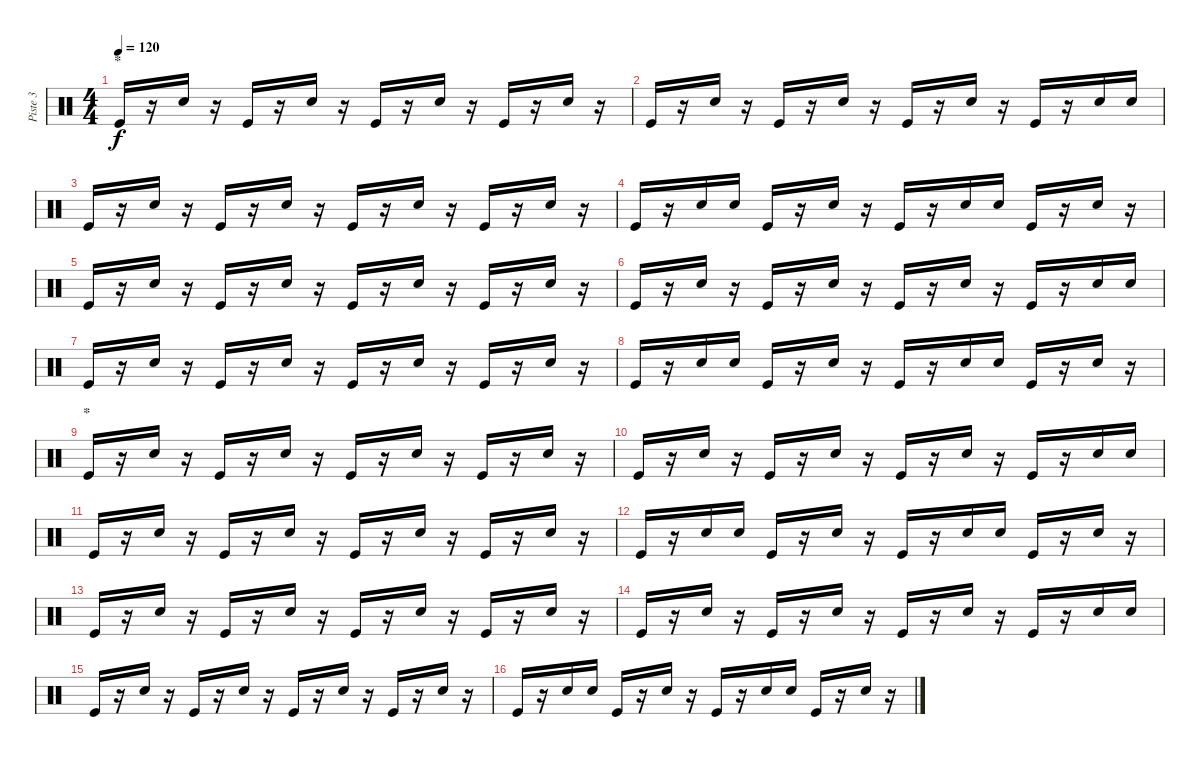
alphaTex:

\track ("Piste 3" "Piste 3") {instrument percussion}
\staff {score}
\articulation defaults
\ts (4 4)
\section ("" "*")
\tempo 120
\clef neutral
\ks c "Kick (hit)".16{dy f}
r.16 "Snare (hit) 2".16 r.16 "Kick (hit)".16 r.16 "Snare (hit) 2".16 r.16 "Kick (hit)".16 r.16 "Snare (hit) 2".16 r.16 "Kick (hit)".16 r.16 "Snare (hit) 2".16 r.16 |
"Kick (hit)".16 r.16 "Snare (hit) 2".16 r.16 "Kick (hit)".16 r.16 "Snare (hit) 2".16 r.16 "Kick (hit)".16 r.16 "Snare (hit) 2".16 r.16 "Kick (hit)".16 r.16 "Snare (hit) 2".16 "Snare (hit) 2".16 |
"Kick (hit)".16 r.16 "Snare (hit) 2".16 r.16 "Kick (hit)".16 r.16 "Snare (hit) 2".16 r.16 "Kick (hit)".16 r.16 "Snare (hit) 2".16 r.16 "Kick (hit)".16 r.16 "Snare (hit) 2".16 r.16 |
"Kick (hit)".16 r.16 "Snare (hit) 2".16 "Snare (hit) 2".16 "Kick (hit)".16 r.16 "Snare (hit) 2".16 r.16 "Kick (hit)".16 r.16 "Snare (hit) 2".16 "Snare (hit) 2".16 "Kick (hit)".16 r.16 "Snare (hit) 2".16 r.16 |
"Kick (hit)".16 r.16 "Snare (hit) 2".16 r.16 "Kick (hit)".16 r.16 "Snare (hit) 2".16 r.16 "Kick (hit)".16 r.16 "Snare (hit) 2".16 r.16 "Kick (hit)".16 r.16 "Snare (hit) 2".16 r.16 |
"Kick (hit)".16 r.16 "Snare (hit) 2".16 r.16 "Kick (hit)".16 r.16 "Snare (hit) 2".16 r.16 "Kick (hit)".16 r.16 "Snare (hit) 2".16 r.16 "Kick (hit)".16 r.16 "Snare (hit) 2".16 "Snare (hit) 2".16 |
"Kick (hit)".16 r.16 "Snare (hit) 2".16 r.16 "Kick (hit)".16 r.16 "Snare (hit) 2".16 r.16 "Kick (hit)".16 r.16 "Snare (hit) 2".16 r.16 "Kick (hit)".16 r.16 "Snare (hit) 2".16 r.16 |
"Kick (hit)".16 r.16 "Snare (hit) 2".16 "Snare (hit) 2".16 "Kick (hit)".16 r.16 "Snare (hit) 2".16 r.16 "Kick (hit)".16 r.16 "Snare (hit) 2".16 "Snare (hit) 2".16 "Kick (hit)".16 r.16 "Snare (hit) 2".16 r.16 |
\section ("" "*")
"Kick (hit)".16 r.16 "Snare (hit) 2".16 r.16 "Kick (hit)".16 r.16 "Snare (hit) 2".16 r.16 "Kick (hit)".16 r.16 "Snare (hit) 2".16 r.16 "Kick (hit)".16 r.16 "Snare (hit) 2".16 r.16 |
"Kick (hit)".16 r.16 "Snare (hit) 2".16 r.16 "Kick (hit)".16 r.16 "Snare (hit) 2".16 r.16 "Kick (hit)".16 r.16 "Snare (hit) 2".16 r.16 "Kick (hit)".16 r.16 "Snare (hit) 2".16 "Snare (hit) 2".16 |
"Kick (hit)".16 r.16 "Snare (hit) 2".16 r.16 "Kick (hit)".16 r.16 "Snare (hit) 2".16 r.16 "Kick (hit)".16 r.16 "Snare (hit) 2".16 r.16 "Kick (hit)".16 r.16 "Snare (hit) 2".16 r.16 |
"Kick (hit)".16 r.16 "Snare (hit) 2".16 "Snare (hit) 2".16 "Kick (hit)".16 r.16 "Snare (hit) 2".16 r.16 "Kick (hit)".16 r.16 "Snare (hit) 2".16 "Snare (hit) 2".16 "Kick (hit)".16 r.16 "Snare (hit) 2".16 r.16 |
"Kick (hit)".16 r.16 "Snare (hit) 2".16 r.16 "Kick (hit)".16 r.16 "Snare (hit) 2".16 r.16 "Kick (hit)".16 r.16 "Snare (hit) 2".16 r.16 "Kick (hit)".16 r.16 "Snare (hit) 2".16 r.16 |
"Kick (hit)".16 r.16 "Snare (hit) 2".16 r.16 "Kick (hit)".16 r.16 "Snare (hit) 2".16 r.16 "Kick (hit)".16 r.16 "Snare (hit) 2".16 r.16 "Kick (hit)".16 r.16 "Snare (hit) 2".16 "Snare (hit) 2".16 |
"Kick (hit)".16 r.16 "Snare (hit) 2".16 r.16 "Kick (hit)".16 r.16 "Snare (hit) 2".16 r.16 "Kick (hit)".16 r.16 "Snare (hit) 2".16 r.16 "Kick (hit)".16 r.16 "Snare (hit) 2".16 r.16 |
"Kick (hit)".16 r.16 "Snare (hit) 2".16 "Snare (hit) 2".16 "Kick (hit)".16 r.16 "Snare (hit) 2".16 r.16 "Kick (hit)".16 r.16 "Snare (hit) 2".16 "Snare (hit) 2".16 "Kick (hit)".16 r.16 "Snare (hit) 2".16 r.16
